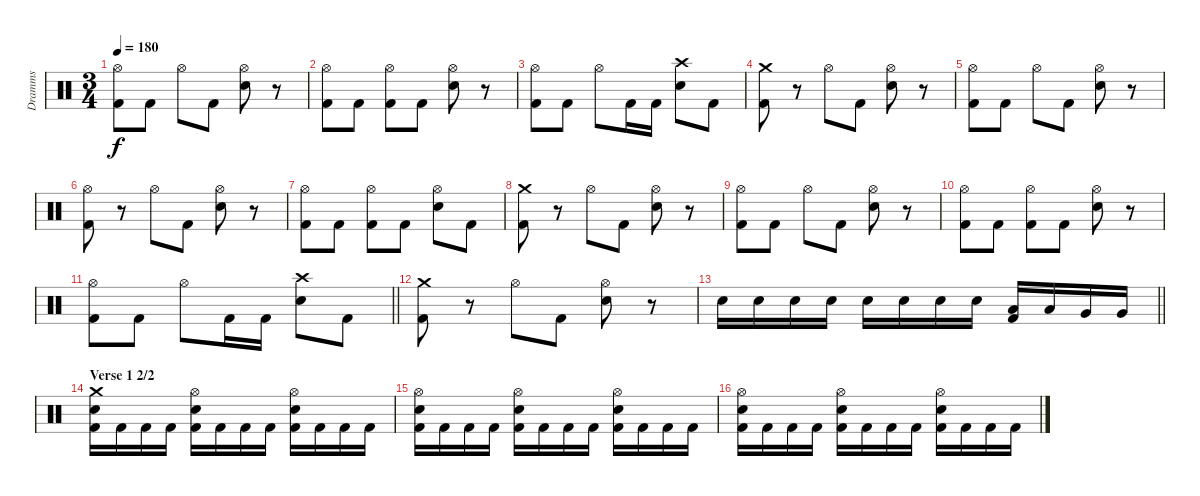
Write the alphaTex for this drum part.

\track ("Dramms" "Dramms") {instrument percussion}
\staff {score}
\articulation defaults
\ts (3 4)
\tempo 180
\clef neutral
\ks c
("Hi-Hat (open)" "Kick (hit) 2").8{dy f} "Kick (hit) 2".8 "Hi-Hat (open)".8 "Kick (hit) 2".8 ("Hi-Hat (open)" "Electric Snare (hit)").8 r.8 |
("Hi-Hat (open)" "Kick (hit) 2").8 "Kick (hit) 2".8 ("Hi-Hat (open)" "Kick (hit) 2").8 "Kick (hit) 2".8 ("Hi-Hat (open)" "Electric Snare (hit)").8 r.8 |
("Hi-Hat (open)" "Kick (hit) 2").8 "Kick (hit) 2".8 "Hi-Hat (open)".8 "Kick (hit) 2".16 "Kick (hit) 2".16 ("Crash high (hit)" "Electric Snare (hit)").8 "Kick (hit) 2".8 |
("Crash medium (hit)" "Kick (hit) 2").8 r.8 "Hi-Hat (open)".8 "Kick (hit) 2".8 ("Hi-Hat (open)" "Electric Snare (hit)").8 r.8 |
("Hi-Hat (open)" "Kick (hit) 2").8 "Kick (hit) 2".8 "Hi-Hat (open)".8 "Kick (hit) 2".8 ("Hi-Hat (open)" "Electric Snare (hit)").8 r.8 |
("Hi-Hat (open)" "Kick (hit) 2").8 r.8 "Hi-Hat (open)".8 "Kick (hit) 2".8 ("Hi-Hat (open)" "Electric Snare (hit)").8 r.8 |
("Hi-Hat (open)" "Kick (hit) 2").8 "Kick (hit) 2".8 ("Hi-Hat (open)" "Kick (hit) 2").8 "Kick (hit) 2".8 ("Hi-Hat (open)" "Electric Snare (hit)").8 "Kick (hit) 2".8 |
("Crash medium (hit)" "Kick (hit) 2").8 r.8 "Hi-Hat (open)".8 "Kick (hit) 2".8 ("Hi-Hat (open)" "Electric Snare (hit)").8 r.8 |
("Hi-Hat (open)" "Kick (hit) 2").8 "Kick (hit) 2".8 "Hi-Hat (open)".8 "Kick (hit) 2".8 ("Hi-Hat (open)" "Electric Snare (hit)").8 r.8 |
("Hi-Hat (open)" "Kick (hit) 2").8 "Kick (hit) 2".8 ("Hi-Hat (open)" "Kick (hit) 2").8 "Kick (hit) 2".8 ("Hi-Hat (open)" "Electric Snare (hit)").8 r.8 |
\barLineRight lightlight
("Hi-Hat (open)" "Kick (hit) 2").8 "Kick (hit) 2".8 "Hi-Hat (open)".8 "Kick (hit) 2".16 "Kick (hit) 2".16 ("Crash high (hit)" "Electric Snare (hit)").8 "Kick (hit) 2".8 |
("Crash medium (hit)" "Kick (hit) 2").8 r.8 "Hi-Hat (open)".8 "Kick (hit) 2".8 ("Hi-Hat (open)" "Electric Snare (hit)").8 r.8 |
\barLineRight lightlight "Electric Snare (hit)".16 "Electric Snare (hit)".16 "Electric Snare (hit)".16 "Electric Snare (hit)".16 "Electric Snare (hit)".16 "Electric Snare (hit)".16 "Electric Snare (hit)".16 "Electric Snare (hit)".16
("Low Tom (hit)" "Kick (hit) 2").16 "Low Tom (hit)".16 "Very Low Tom (hit)".16 "Very Low Tom (hit)".16 |
\section ("" "Verse 1 2/2")
("Crash medium (hit)" "Electric Snare (hit)" "Kick (hit) 2").16 "Kick (hit) 2".16 "Kick (hit) 2".16 "Kick (hit) 2".16 ("Hi-Hat (open)" "Electric Snare (hit)" "Kick (hit) 2").16 "Kick (hit) 2".16 "Kick (hit) 2".16 "Kick (hit) 2".16 ("Hi-Hat (open)" "Electric Snare (hit)" "Kick (hit) 2").16 "Kick (hit) 2".16 "Kick (hit) 2".16 "Kick (hit) 2".16 |
("Hi-Hat (open)" "Electric Snare (hit)" "Kick (hit) 2").16 "Kick (hit) 2".16 "Kick (hit) 2".16 "Kick (hit) 2".16 ("Hi-Hat (open)" "Electric Snare (hit)" "Kick (hit) 2").16 "Kick (hit) 2".16 "Kick (hit) 2".16 "Kick (hit) 2".16 ("Hi-Hat (open)" "Electric Snare (hit)" "Kick (hit) 2").16 "Kick (hit) 2".16 "Kick (hit) 2".16 "Kick (hit) 2".16 |
("Hi-Hat (open)" "Electric Snare (hit)" "Kick (hit) 2").16 "Kick (hit) 2".16 "Kick (hit) 2".16 "Kick (hit) 2".16 ("Hi-Hat (open)" "Electric Snare (hit)" "Kick (hit) 2").16 "Kick (hit) 2".16 "Kick (hit) 2".16 "Kick (hit) 2".16 ("Hi-Hat (open)" "Electric Snare (hit)" "Kick (hit) 2").16 "Kick (hit) 2".16 "Kick (hit) 2".16 "Kick (hit) 2".16
